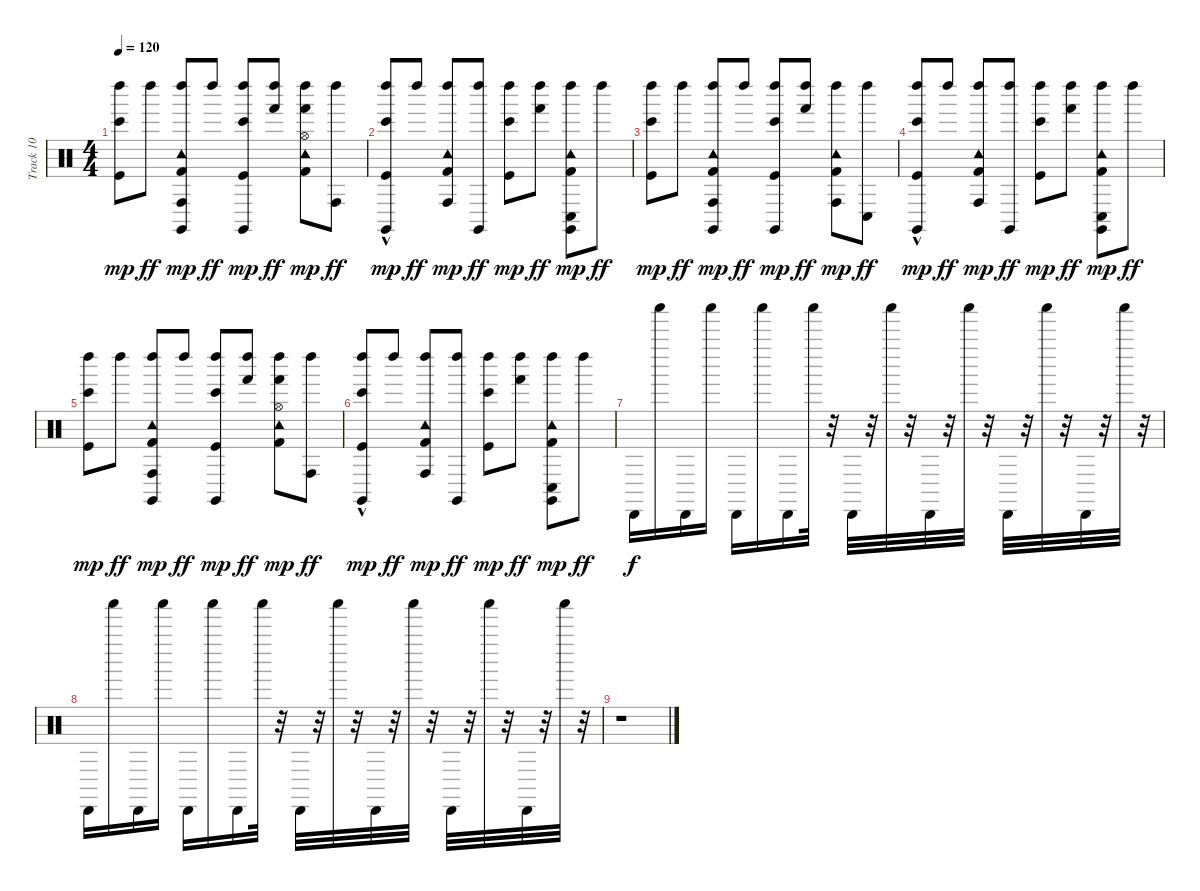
\track ("Track 10" "Track 10") {instrument percussion}
\staff {score}
\articulation defaults
\ts (4 4)
\tempo 120
\clef neutral
\ks c
("Bongo High (hit)" "Left Maraca (hit)" "Kick (hit)").8{dy mp} "Left Maraca (hit)".8{dy ff} ("Conga high (hit)" "Tambourine (hit)" "Left Maraca (hit)" "Kick (hit) 2" "Claves (hit)").8{dy mp} "Left Maraca (hit)".8{dy ff} ("Bongo High (hit)" "Left Maraca (hit)" "Kick (hit)" "Claves (hit)").8{dy mp} ("Hand (hit)" "Left Maraca (hit)").8{dy ff} ("Hand (hit)" "Hi-Hat (open)" "Tambourine (hit)" "Left Maraca (hit)" "Kick (hit) 2").8{dy mp} ("Conga high (hit)" "Left Maraca (hit)").8{dy ff} |
("Bongo High (hit)" "Left Maraca (hit)" "Kick (hit)" "Claves (hit)"{hac}).8{dy mp} "Left Maraca (hit)".8{dy ff} ("Conga high (hit)" "Tambourine (hit)" "Left Maraca (hit)" "Kick (hit) 2").8{dy mp} ("Left Maraca (hit)" "Claves (hit)").8{dy ff} ("Bongo High (hit)" "Left Maraca (hit)" "Kick (hit)").8{dy mp} ("Hand (hit)" "Left Maraca (hit)").8{dy ff} ("Conga low (hit)" "Tambourine (hit)" "Left Maraca (hit)" "Kick (hit) 2" "Claves (hit)").8{dy mp} "Left Maraca (hit)".8{dy ff} |
("Bongo High (hit)" "Left Maraca (hit)" "Kick (hit)").8{dy mp} "Left Maraca (hit)".8{dy ff} ("Conga high (hit)" "Tambourine (hit)" "Left Maraca (hit)" "Kick (hit) 2" "Claves (hit)").8{dy mp} "Left Maraca (hit)".8{dy ff} ("Bongo High (hit)" "Left Maraca (hit)" "Kick (hit)" "Claves (hit)").8{dy mp} ("Hand (hit)" "Left Maraca (hit)").8{dy ff} ("Conga high (hit)" "Tambourine (hit)" "Left Maraca (hit)" "Kick (hit) 2").8{dy mp} ("Conga low (hit)" "Left Maraca (hit)").8{dy ff} |
("Bongo High (hit)" "Left Maraca (hit)" "Kick (hit)" "Claves (hit)"{hac}).8{dy mp} "Left Maraca (hit)".8{dy ff} ("Conga high (hit)" "Tambourine (hit)" "Left Maraca (hit)" "Kick (hit) 2").8{dy mp} ("Left Maraca (hit)" "Claves (hit)").8{dy ff} ("Bongo High (hit)" "Left Maraca (hit)" "Kick (hit)").8{dy mp} ("Hand (hit)" "Left Maraca (hit)").8{dy ff} ("Conga low (hit)" "Tambourine (hit)" "Left Maraca (hit)" "Kick (hit) 2" "Claves (hit)").8{dy mp} "Left Maraca (hit)".8{dy ff} |
("Bongo High (hit)" "Left Maraca (hit)" "Kick (hit)").8{dy mp} "Left Maraca (hit)".8{dy ff} ("Conga high (hit)" "Tambourine (hit)" "Left Maraca (hit)" "Kick (hit) 2" "Claves (hit)").8{dy mp} "Left Maraca (hit)".8{dy ff} ("Bongo High (hit)" "Left Maraca (hit)" "Kick (hit)" "Claves (hit)").8{dy mp} ("Hand (hit)" "Left Maraca (hit)").8{dy ff} ("Hand (hit)" "Hi-Hat (open)" "Tambourine (hit)" "Left Maraca (hit)" "Kick (hit) 2").8{dy mp} ("Conga high (hit)" "Left Maraca (hit)").8{dy ff} |
("Bongo High (hit)" "Left Maraca (hit)" "Kick (hit)" "Claves (hit)"{hac}).8{dy mp} "Left Maraca (hit)".8{dy ff} ("Conga high (hit)" "Tambourine (hit)" "Left Maraca (hit)" "Kick (hit) 2").8{dy mp} ("Left Maraca (hit)" "Claves (hit)").8{dy ff} ("Bongo High (hit)" "Left Maraca (hit)" "Kick (hit)").8{dy mp} ("Hand (hit)" "Left Maraca (hit)").8{dy ff} ("Conga low (hit)" "Tambourine (hit)" "Left Maraca (hit)" "Kick (hit) 2" "Claves (hit)").8{dy mp} "Left Maraca (hit)".8{dy ff} |
"Cabasa (hit)".16{dy f volume 16} "Shaker (hit)".16{volume 16} "Cabasa (hit)".16{volume 15} "Shaker (hit)".16{volume 14} "Cabasa (hit)".16{volume 14} "Shaker (hit)".16{volume 14} "Cabasa (hit)".16{volume 13} "Shaker (hit)".32{volume 13} r.32 "Cabasa (hit)".32{volume 12} r.32 "Shaker (hit)".32{volume 12} r.32 "Cabasa (hit)".32{volume 11} r.32 "Shaker (hit)".32{volume 11} r.32 "Cabasa (hit)".32{volume 10} r.32 "Shaker (hit)".32{volume 10} r.32 "Cabasa (hit)".32{volume 9} r.32 "Shaker (hit)".32{volume 9} r.32 |
"Cabasa (hit)".16{volume 8} "Shaker (hit)".16{volume 8} "Cabasa (hit)".16{volume 7} "Shaker (hit)".16{volume 7} "Cabasa (hit)".16{volume 6} "Shaker (hit)".16{volume 6} "Cabasa (hit)".16{volume 6} "Shaker (hit)".32{volume 5} r.32 "Cabasa (hit)".32{volume 4} r.32 "Shaker (hit)".32{volume 4} r.32 "Cabasa (hit)".32{volume 4} r.32 "Shaker (hit)".32{volume 3} r.32 "Cabasa (hit)".32{volume 3} r.32 "Shaker (hit)".32{volume 2} r.32 "Cabasa (hit)".32{volume 2} r.32 "Shaker (hit)".32{volume 1} r.32 |
r.1
